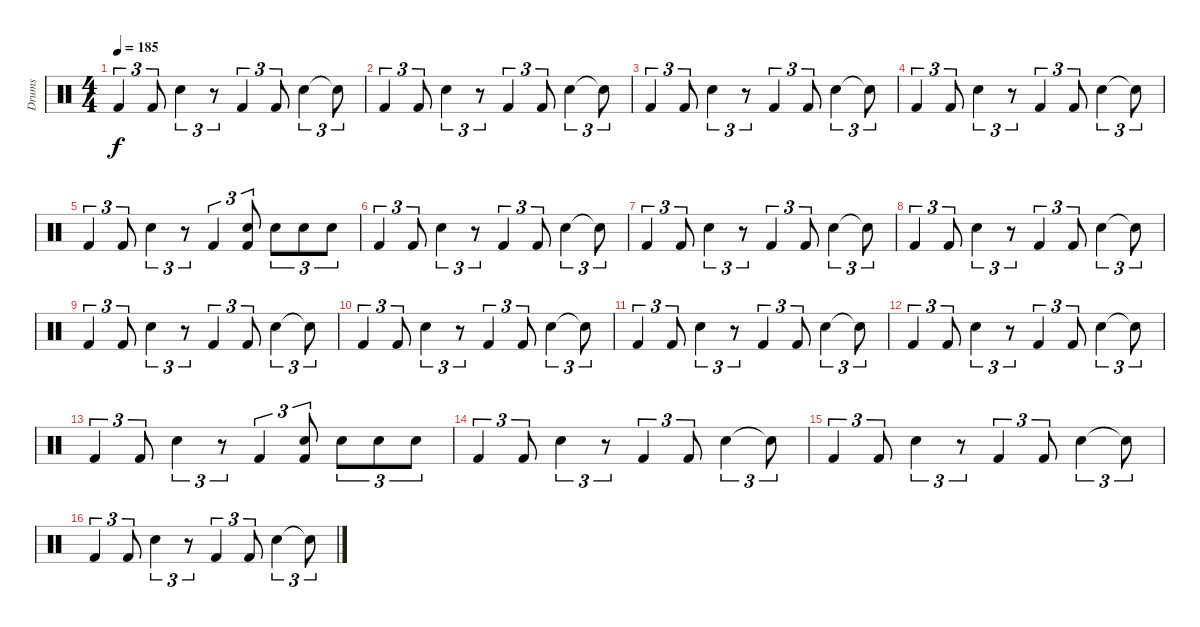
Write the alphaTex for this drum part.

\track ("Drums" "Drums") {instrument percussion}
\staff {score}
\articulation defaults
\ts (4 4)
\tempo 185
\clef neutral
\ks c "Kick (hit) 2".4{tu (3 2) dy f} "Kick (hit) 2".8{tu (3 2)} "Snare (hit) 2".4{tu (3 2)}
r.8{tu (3 2)} "Kick (hit) 2".4{tu (3 2)} "Kick (hit) 2".8{tu (3 2)} "Snare (hit) 2".4{tu (3 2)} "Snare (hit)"{t}.8{tu (3 2)} |
"Kick (hit) 2".4{tu (3 2)} "Kick (hit) 2".8{tu (3 2)} "Snare (hit) 2".4{tu (3 2)} r.8{tu (3 2)} "Kick (hit) 2".4{tu (3 2)} "Kick (hit) 2".8{tu (3 2)} "Snare (hit) 2".4{tu (3 2)} "Snare (hit)"{t}.8{tu (3 2)} |
"Kick (hit) 2".4{tu (3 2)} "Kick (hit) 2".8{tu (3 2)} "Snare (hit) 2".4{tu (3 2)} r.8{tu (3 2)} "Kick (hit) 2".4{tu (3 2)} "Kick (hit) 2".8{tu (3 2)} "Snare (hit) 2".4{tu (3 2)} "Snare (hit)"{t}.8{tu (3 2)} |
"Kick (hit) 2".4{tu (3 2)} "Kick (hit) 2".8{tu (3 2)} "Snare (hit) 2".4{tu (3 2)} r.8{tu (3 2)} "Kick (hit) 2".4{tu (3 2)} "Kick (hit) 2".8{tu (3 2)} "Snare (hit) 2".4{tu (3 2)} "Snare (hit)"{t}.8{tu (3 2)} |
"Kick (hit) 2".4{tu (3 2)} "Kick (hit) 2".8{tu (3 2)} "Snare (hit) 2".4{tu (3 2)} r.8{tu (3 2)} "Kick (hit) 2".4{tu (3 2)} ("Snare (hit) 2" "Kick (hit) 2").8{tu (3 2)} "Snare (hit) 2".8{tu (3 2)} "Snare (hit) 2".8{tu (3 2)} "Snare (hit) 2".8{tu (3 2)} |
"Kick (hit) 2".4{tu (3 2)} "Kick (hit) 2".8{tu (3 2)} "Snare (hit) 2".4{tu (3 2)} r.8{tu (3 2)} "Kick (hit) 2".4{tu (3 2)} "Kick (hit) 2".8{tu (3 2)} "Snare (hit) 2".4{tu (3 2)} "Snare (hit)"{t}.8{tu (3 2)} |
"Kick (hit) 2".4{tu (3 2)} "Kick (hit) 2".8{tu (3 2)} "Snare (hit) 2".4{tu (3 2)} r.8{tu (3 2)} "Kick (hit) 2".4{tu (3 2)} "Kick (hit) 2".8{tu (3 2)} "Snare (hit) 2".4{tu (3 2)} "Snare (hit)"{t}.8{tu (3 2)} |
"Kick (hit) 2".4{tu (3 2)} "Kick (hit) 2".8{tu (3 2)} "Snare (hit) 2".4{tu (3 2)} r.8{tu (3 2)} "Kick (hit) 2".4{tu (3 2)} "Kick (hit) 2".8{tu (3 2)} "Snare (hit) 2".4{tu (3 2)} "Snare (hit)"{t}.8{tu (3 2)} |
"Kick (hit) 2".4{tu (3 2)} "Kick (hit) 2".8{tu (3 2)} "Snare (hit) 2".4{tu (3 2)} r.8{tu (3 2)} "Kick (hit) 2".4{tu (3 2)} "Kick (hit) 2".8{tu (3 2)} "Snare (hit) 2".4{tu (3 2)} "Snare (hit)"{t}.8{tu (3 2)} |
"Kick (hit) 2".4{tu (3 2)} "Kick (hit) 2".8{tu (3 2)} "Snare (hit) 2".4{tu (3 2)} r.8{tu (3 2)} "Kick (hit) 2".4{tu (3 2)} "Kick (hit) 2".8{tu (3 2)} "Snare (hit) 2".4{tu (3 2)} "Snare (hit)"{t}.8{tu (3 2)} |
"Kick (hit) 2".4{tu (3 2)} "Kick (hit) 2".8{tu (3 2)} "Snare (hit) 2".4{tu (3 2)} r.8{tu (3 2)} "Kick (hit) 2".4{tu (3 2)} "Kick (hit) 2".8{tu (3 2)} "Snare (hit) 2".4{tu (3 2)} "Snare (hit)"{t}.8{tu (3 2)} |
"Kick (hit) 2".4{tu (3 2)} "Kick (hit) 2".8{tu (3 2)} "Snare (hit) 2".4{tu (3 2)} r.8{tu (3 2)} "Kick (hit) 2".4{tu (3 2)} "Kick (hit) 2".8{tu (3 2)} "Snare (hit) 2".4{tu (3 2)} "Snare (hit)"{t}.8{tu (3 2)} |
"Kick (hit) 2".4{tu (3 2)} "Kick (hit) 2".8{tu (3 2)} "Snare (hit) 2".4{tu (3 2)} r.8{tu (3 2)} "Kick (hit) 2".4{tu (3 2)} ("Snare (hit) 2" "Kick (hit) 2").8{tu (3 2)} "Snare (hit) 2".8{tu (3 2)} "Snare (hit) 2".8{tu (3 2)} "Snare (hit) 2".8{tu (3 2)} |
"Kick (hit) 2".4{tu (3 2)} "Kick (hit) 2".8{tu (3 2)} "Snare (hit) 2".4{tu (3 2)} r.8{tu (3 2)} "Kick (hit) 2".4{tu (3 2)} "Kick (hit) 2".8{tu (3 2)} "Snare (hit) 2".4{tu (3 2)} "Snare (hit)"{t}.8{tu (3 2)} |
"Kick (hit) 2".4{tu (3 2)} "Kick (hit) 2".8{tu (3 2)} "Snare (hit) 2".4{tu (3 2)} r.8{tu (3 2)} "Kick (hit) 2".4{tu (3 2)} "Kick (hit) 2".8{tu (3 2)} "Snare (hit) 2".4{tu (3 2)} "Snare (hit)"{t}.8{tu (3 2)} |
"Kick (hit) 2".4{tu (3 2)} "Kick (hit) 2".8{tu (3 2)} "Snare (hit) 2".4{tu (3 2)} r.8{tu (3 2)} "Kick (hit) 2".4{tu (3 2)} "Kick (hit) 2".8{tu (3 2)} "Snare (hit) 2".4{tu (3 2)} "Snare (hit)"{t}.8{tu (3 2)}
